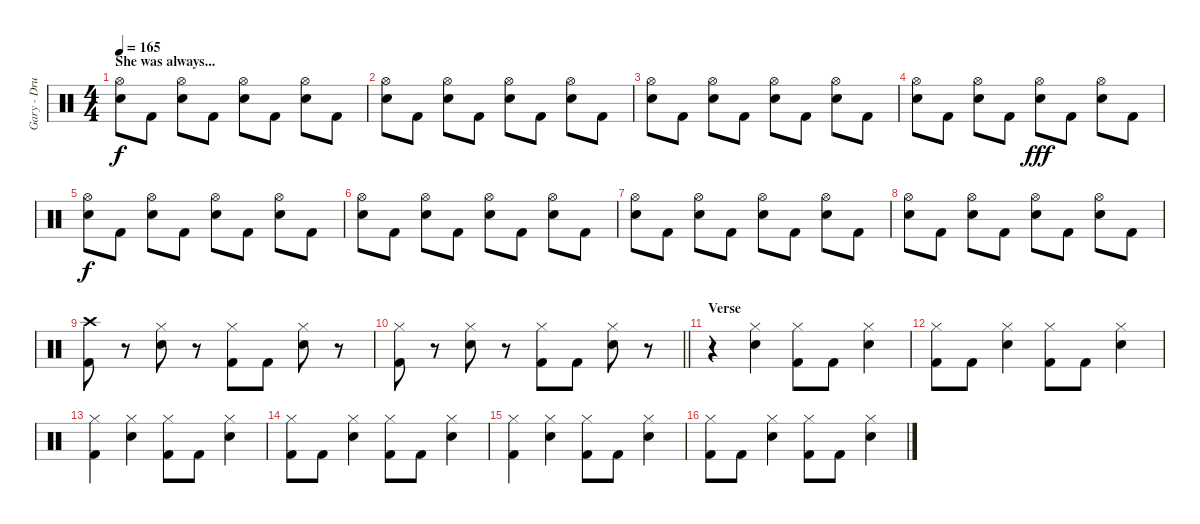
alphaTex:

\track ("Gary - Drums" "Gary - Dru") {instrument percussion}
\staff {score}
\articulation defaults
\ts (4 4)
\section ("" "She was always...")
\tempo 165
\clef neutral
\ks c
("Hi-Hat (open)" "Snare (hit) 2").8{dy f} "Kick (hit) 2".8 ("Hi-Hat (open)" "Snare (hit) 2").8 "Kick (hit) 2".8 ("Hi-Hat (open)" "Snare (hit) 2").8 "Kick (hit) 2".8 ("Hi-Hat (open)" "Snare (hit) 2").8 "Kick (hit) 2".8 |
("Hi-Hat (open)" "Snare (hit) 2").8 "Kick (hit) 2".8 ("Hi-Hat (open)" "Snare (hit) 2").8 "Kick (hit) 2".8 ("Hi-Hat (open)" "Snare (hit) 2").8 "Kick (hit) 2".8 ("Hi-Hat (open)" "Snare (hit) 2").8 "Kick (hit) 2".8 |
("Hi-Hat (open)" "Snare (hit) 2").8 "Kick (hit) 2".8 ("Hi-Hat (open)" "Snare (hit) 2").8 "Kick (hit) 2".8 ("Hi-Hat (open)" "Snare (hit) 2").8 "Kick (hit) 2".8 ("Hi-Hat (open)" "Snare (hit) 2").8 "Kick (hit) 2".8 |
("Hi-Hat (open)" "Snare (hit) 2").8 "Kick (hit) 2".8 ("Hi-Hat (open)" "Snare (hit) 2").8 "Kick (hit) 2".8 ("Hi-Hat (open)" "Snare (hit) 2").8{dy fff} "Kick (hit) 2".8 ("Hi-Hat (open)" "Snare (hit) 2").8 "Kick (hit) 2".8 |
("Hi-Hat (open)" "Snare (hit) 2").8{dy f} "Kick (hit) 2".8 ("Hi-Hat (open)" "Snare (hit) 2").8 "Kick (hit) 2".8 ("Hi-Hat (open)" "Snare (hit) 2").8 "Kick (hit) 2".8 ("Hi-Hat (open)" "Snare (hit) 2").8 "Kick (hit) 2".8 |
("Hi-Hat (open)" "Snare (hit) 2").8 "Kick (hit) 2".8 ("Hi-Hat (open)" "Snare (hit) 2").8 "Kick (hit) 2".8 ("Hi-Hat (open)" "Snare (hit) 2").8 "Kick (hit) 2".8 ("Hi-Hat (open)" "Snare (hit) 2").8 "Kick (hit) 2".8 |
("Hi-Hat (open)" "Snare (hit) 2").8 "Kick (hit) 2".8 ("Hi-Hat (open)" "Snare (hit) 2").8 "Kick (hit) 2".8 ("Hi-Hat (open)" "Snare (hit) 2").8 "Kick (hit) 2".8 ("Hi-Hat (open)" "Snare (hit) 2").8 "Kick (hit) 2".8 |
("Hi-Hat (open)" "Snare (hit) 2").8 "Kick (hit) 2".8 ("Hi-Hat (open)" "Snare (hit) 2").8 "Kick (hit) 2".8 ("Hi-Hat (open)" "Snare (hit) 2").8 "Kick (hit) 2".8 ("Hi-Hat (open)" "Snare (hit) 2").8 "Kick (hit) 2".8 |
("Crash high (hit)" "Kick (hit) 2").8 r.8 ("Hi-Hat (closed)" "Snare (hit) 2").8 r.8 ("Hi-Hat (closed)" "Kick (hit) 2").8 "Kick (hit) 2".8 ("Hi-Hat (closed)" "Snare (hit) 2").8 r.8 |
\barLineRight lightlight
("Hi-Hat (closed)" "Kick (hit) 2").8 r.8 ("Hi-Hat (closed)" "Snare (hit) 2").8 r.8 ("Hi-Hat (closed)" "Kick (hit) 2").8 "Kick (hit) 2".8 ("Hi-Hat (closed)" "Snare (hit) 2").8 r.8 |
\section ("" "Verse")
r.4 ("Hi-Hat (closed)" "Snare (hit) 2").4 ("Hi-Hat (closed)" "Kick (hit) 2").8 "Kick (hit) 2".8 ("Hi-Hat (closed)" "Snare (hit) 2").4 |
("Hi-Hat (closed)" "Kick (hit) 2").8 "Kick (hit) 2".8 ("Hi-Hat (closed)" "Snare (hit) 2").4 ("Hi-Hat (closed)" "Kick (hit) 2").8 "Kick (hit) 2".8 ("Hi-Hat (closed)" "Snare (hit) 2").4 |
("Hi-Hat (closed)" "Kick (hit) 2").4 ("Hi-Hat (closed)" "Snare (hit) 2").4 ("Hi-Hat (closed)" "Kick (hit) 2").8 "Kick (hit) 2".8 ("Hi-Hat (closed)" "Snare (hit) 2").4 |
("Hi-Hat (closed)" "Kick (hit) 2").8 "Kick (hit) 2".8 ("Hi-Hat (closed)" "Snare (hit) 2").4 ("Hi-Hat (closed)" "Kick (hit) 2").8 "Kick (hit) 2".8 ("Hi-Hat (closed)" "Snare (hit) 2").4 |
("Hi-Hat (closed)" "Kick (hit) 2").4 ("Hi-Hat (closed)" "Snare (hit) 2").4 ("Hi-Hat (closed)" "Kick (hit) 2").8 "Kick (hit) 2".8 ("Hi-Hat (closed)" "Snare (hit) 2").4 |
("Hi-Hat (closed)" "Kick (hit) 2").8 "Kick (hit) 2".8 ("Hi-Hat (closed)" "Snare (hit) 2").4 ("Hi-Hat (closed)" "Kick (hit) 2").8 "Kick (hit) 2".8 ("Hi-Hat (closed)" "Snare (hit) 2").4
